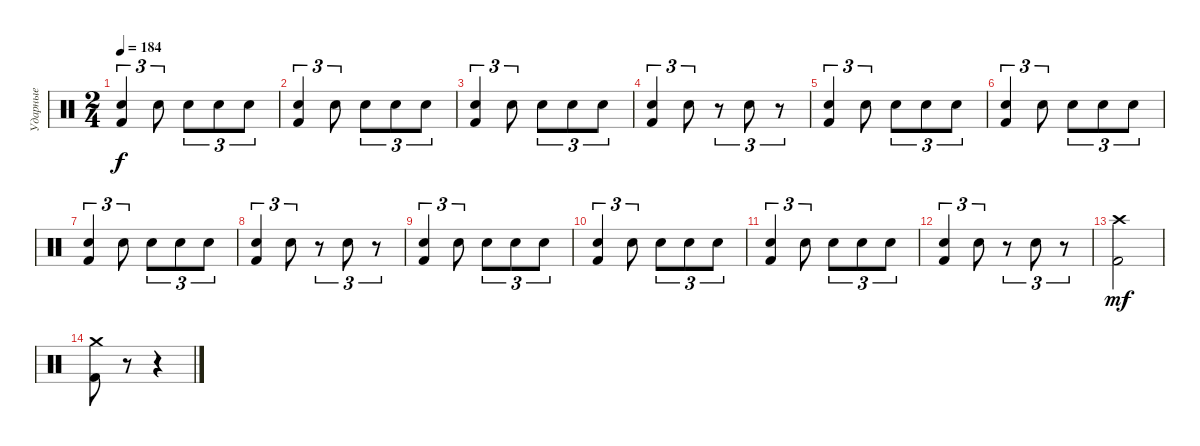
\track ("Ударные" "Ударные") {instrument percussion}
\staff {score}
\articulation defaults
\ts (2 4)
\tempo 184
\clef neutral
\ks c
("Snare (hit) 2" "Kick (hit) 2").4{tu (3 2) dy f} "Snare (hit) 2".8{tu (3 2)} "Snare (hit) 2".8{tu (3 2)} "Snare (hit) 2".8{tu (3 2)} "Snare (hit) 2".8{tu (3 2)} |
("Snare (hit) 2" "Kick (hit) 2").4{tu (3 2)} "Snare (hit) 2".8{tu (3 2)} "Snare (hit) 2".8{tu (3 2)} "Snare (hit) 2".8{tu (3 2)} "Snare (hit) 2".8{tu (3 2)} |
("Snare (hit) 2" "Kick (hit) 2").4{tu (3 2)} "Snare (hit) 2".8{tu (3 2)} "Snare (hit) 2".8{tu (3 2)} "Snare (hit) 2".8{tu (3 2)} "Snare (hit) 2".8{tu (3 2)} |
("Snare (hit) 2" "Kick (hit) 2").4{tu (3 2)} "Snare (hit) 2".8{tu (3 2)} r.8{tu (3 2)} "Snare (hit) 2".8{tu (3 2)} r.8{tu (3 2)} |
("Snare (hit) 2" "Kick (hit) 2").4{tu (3 2)} "Snare (hit) 2".8{tu (3 2)} "Snare (hit) 2".8{tu (3 2)} "Snare (hit) 2".8{tu (3 2)} "Snare (hit) 2".8{tu (3 2)} |
("Snare (hit) 2" "Kick (hit) 2").4{tu (3 2)} "Snare (hit) 2".8{tu (3 2)} "Snare (hit) 2".8{tu (3 2)} "Snare (hit) 2".8{tu (3 2)} "Snare (hit) 2".8{tu (3 2)} |
("Snare (hit) 2" "Kick (hit) 2").4{tu (3 2)} "Snare (hit) 2".8{tu (3 2)} "Snare (hit) 2".8{tu (3 2)} "Snare (hit) 2".8{tu (3 2)} "Snare (hit) 2".8{tu (3 2)} |
("Snare (hit) 2" "Kick (hit) 2").4{tu (3 2)} "Snare (hit) 2".8{tu (3 2)} r.8{tu (3 2)} "Snare (hit) 2".8{tu (3 2)} r.8{tu (3 2)} |
("Snare (hit) 2" "Kick (hit) 2").4{tu (3 2)} "Snare (hit) 2".8{tu (3 2)} "Snare (hit) 2".8{tu (3 2)} "Snare (hit) 2".8{tu (3 2)} "Snare (hit) 2".8{tu (3 2)} |
("Snare (hit) 2" "Kick (hit) 2").4{tu (3 2)} "Snare (hit) 2".8{tu (3 2)} "Snare (hit) 2".8{tu (3 2)} "Snare (hit) 2".8{tu (3 2)} "Snare (hit) 2".8{tu (3 2)} |
("Snare (hit) 2" "Kick (hit) 2").4{tu (3 2)} "Snare (hit) 2".8{tu (3 2)} "Snare (hit) 2".8{tu (3 2)} "Snare (hit) 2".8{tu (3 2)} "Snare (hit) 2".8{tu (3 2)} |
("Snare (hit) 2" "Kick (hit) 2").4{tu (3 2)} "Snare (hit) 2".8{tu (3 2)} r.8{tu (3 2)} "Snare (hit) 2".8{tu (3 2)} r.8{tu (3 2)} |
("Crash high (hit)" "Kick (hit) 2").2{dy mf} |
("Kick (hit) 2" "Crash medium (hit)").8 r.8 r.4
